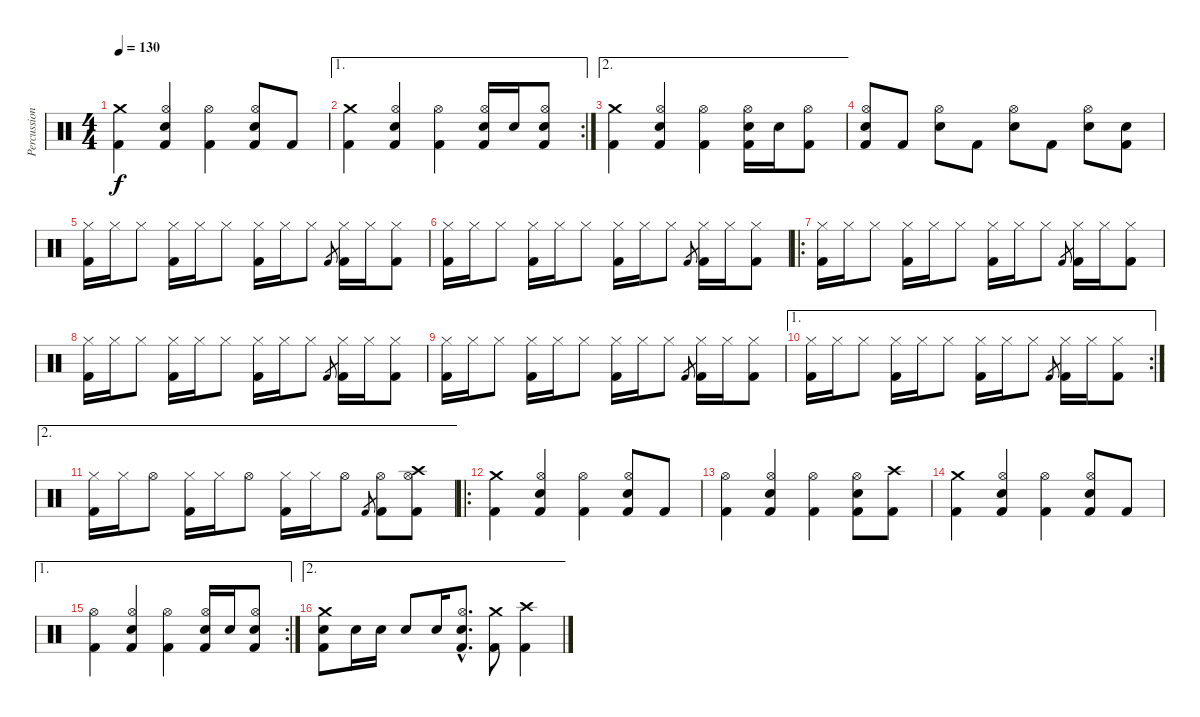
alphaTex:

\track ("Percussion" "Percussion") {instrument percussion}
\staff {score}
\articulation defaults
\ts (4 4)
\tempo 130
\clef neutral
\ks c
("Crash medium (hit)" "Kick (hit) 2").4{dy f} ("Hi-Hat (open)" "Electric Snare (hit)" "Kick (hit) 2").4 ("Hi-Hat (open)" "Kick (hit) 2").4 ("Hi-Hat (open)" "Electric Snare (hit)" "Kick (hit) 2").8 "Kick (hit) 2".8 |
\ae 1
\rc 2
("Crash medium (hit)" "Kick (hit) 2").4 ("Hi-Hat (open)" "Electric Snare (hit)" "Kick (hit) 2").4 ("Hi-Hat (open)" "Kick (hit) 2").4 ("Hi-Hat (open)" "Electric Snare (hit)" "Kick (hit) 2").16 "Electric Snare (hit)".16 ("Hi-Hat (open)" "Electric Snare (hit)" "Kick (hit) 2").8 |
\ae 2
("Crash medium (hit)" "Kick (hit) 2").4 ("Hi-Hat (open)" "Electric Snare (hit)" "Kick (hit) 2").4 ("Hi-Hat (open)" "Kick (hit) 2").4 ("Hi-Hat (open)" "Electric Snare (hit)" "Kick (hit) 2").16 "Electric Snare (hit)".16 ("Hi-Hat (open)" "Kick (hit) 2").8 |
("Hi-Hat (open)" "Electric Snare (hit)" "Kick (hit) 2").8 "Kick (hit) 2".8 ("Hi-Hat (open)" "Electric Snare (hit)").8 "Kick (hit) 2".8 ("Hi-Hat (open)" "Electric Snare (hit)").8 "Kick (hit) 2".8 ("Hi-Hat (open)" "Electric Snare (hit)").8 ("Electric Snare (hit)" "Kick (hit) 2").8 |
("Hi-Hat (closed)" "Kick (hit) 2").16 "Hi-Hat (closed)".16 "Hi-Hat (closed)".8 ("Hi-Hat (closed)" "Kick (hit) 2").16 "Hi-Hat (closed)".16 "Hi-Hat (closed)".8 ("Hi-Hat (closed)" "Kick (hit) 2").16 "Hi-Hat (closed)".16 "Hi-Hat (closed)".8 "Kick (hit) 2".8{gr} ("Hi-Hat (closed)" "Kick (hit) 2").16 "Hi-Hat (closed)".16 ("Hi-Hat (closed)" "Kick (hit) 2").8 |
("Hi-Hat (closed)" "Kick (hit) 2").16 "Hi-Hat (closed)".16 "Hi-Hat (closed)".8 ("Hi-Hat (closed)" "Kick (hit) 2").16 "Hi-Hat (closed)".16 "Hi-Hat (closed)".8 ("Hi-Hat (closed)" "Kick (hit) 2").16 "Hi-Hat (closed)".16 "Hi-Hat (closed)".8 "Kick (hit) 2".8{gr} ("Hi-Hat (closed)" "Kick (hit) 2").16 "Hi-Hat (closed)".16 ("Hi-Hat (closed)" "Kick (hit) 2").8 |
\ro
("Hi-Hat (closed)" "Kick (hit) 2").16 "Hi-Hat (closed)".16 "Hi-Hat (closed)".8 ("Hi-Hat (closed)" "Kick (hit) 2").16 "Hi-Hat (closed)".16 "Hi-Hat (closed)".8 ("Hi-Hat (closed)" "Kick (hit) 2").16 "Hi-Hat (closed)".16 "Hi-Hat (closed)".8 "Kick (hit) 2".8{gr} ("Hi-Hat (closed)" "Kick (hit) 2").16 "Hi-Hat (closed)".16 ("Hi-Hat (closed)" "Kick (hit) 2").8 |
("Hi-Hat (closed)" "Kick (hit) 2").16 "Hi-Hat (closed)".16 "Hi-Hat (closed)".8 ("Hi-Hat (closed)" "Kick (hit) 2").16 "Hi-Hat (closed)".16 "Hi-Hat (closed)".8 ("Hi-Hat (closed)" "Kick (hit) 2").16 "Hi-Hat (closed)".16 "Hi-Hat (closed)".8 "Kick (hit) 2".8{gr} ("Hi-Hat (closed)" "Kick (hit) 2").16 "Hi-Hat (closed)".16 ("Hi-Hat (closed)" "Kick (hit) 2").8 |
("Hi-Hat (closed)" "Kick (hit) 2").16 "Hi-Hat (closed)".16 "Hi-Hat (closed)".8 ("Hi-Hat (closed)" "Kick (hit) 2").16 "Hi-Hat (closed)".16 "Hi-Hat (closed)".8 ("Hi-Hat (closed)" "Kick (hit) 2").16 "Hi-Hat (closed)".16 "Hi-Hat (closed)".8 "Kick (hit) 2".8{gr} ("Hi-Hat (closed)" "Kick (hit) 2").16 "Hi-Hat (closed)".16 ("Hi-Hat (closed)" "Kick (hit) 2").8 |
\ae 1
\rc 2
("Hi-Hat (closed)" "Kick (hit) 2").16 "Hi-Hat (closed)".16 "Hi-Hat (closed)".8 ("Hi-Hat (closed)" "Kick (hit) 2").16 "Hi-Hat (closed)".16 "Hi-Hat (closed)".8 ("Hi-Hat (closed)" "Kick (hit) 2").16 "Hi-Hat (closed)".16 "Hi-Hat (closed)".8 "Kick (hit) 2".8{gr} ("Hi-Hat (closed)" "Kick (hit) 2").16 "Hi-Hat (closed)".16 ("Hi-Hat (closed)" "Kick (hit) 2").8 |
\ae 2
("Hi-Hat (closed)" "Kick (hit) 2").16 "Hi-Hat (closed)".16 "Hi-Hat (open)".8 ("Hi-Hat (closed)" "Kick (hit) 2").16 "Hi-Hat (closed)".16 "Hi-Hat (open)".8 ("Hi-Hat (closed)" "Kick (hit) 2").16 "Hi-Hat (closed)".16 "Hi-Hat (open)".8 "Kick (hit) 2".8{gr} ("Hi-Hat (open)" "Kick (hit) 2").8 ("Crash high (hit)" "Hi-Hat (open)" "Kick (hit) 2").8 |
\ro
("Crash medium (hit)" "Kick (hit) 2").4 ("Hi-Hat (open)" "Electric Snare (hit)" "Kick (hit) 2").4 ("Hi-Hat (open)" "Kick (hit) 2").4 ("Hi-Hat (open)" "Electric Snare (hit)" "Kick (hit) 2").8 "Kick (hit) 2".8 |
("Hi-Hat (open)" "Kick (hit) 2").4 ("Hi-Hat (open)" "Electric Snare (hit)" "Kick (hit) 2").4 ("Hi-Hat (open)" "Kick (hit) 2").4 ("Hi-Hat (open)" "Electric Snare (hit)" "Kick (hit) 2").8 ("Crash high (hit)" "Kick (hit) 2").8 |
("Crash medium (hit)" "Kick (hit) 2").4 ("Hi-Hat (open)" "Electric Snare (hit)" "Kick (hit) 2").4 ("Hi-Hat (open)" "Kick (hit) 2").4 ("Hi-Hat (open)" "Electric Snare (hit)" "Kick (hit) 2").8 "Kick (hit) 2".8 |
\ae 1
\rc 2
("Hi-Hat (open)" "Kick (hit) 2").4 ("Hi-Hat (open)" "Electric Snare (hit)" "Kick (hit) 2").4 ("Hi-Hat (open)" "Kick (hit) 2").4 ("Hi-Hat (open)" "Electric Snare (hit)" "Kick (hit) 2").16 "Electric Snare (hit)".16 ("Hi-Hat (open)" "Electric Snare (hit)" "Kick (hit) 2").8 |
\ae 2
("Crash medium (hit)" "Electric Snare (hit)" "Kick (hit) 2").8 "Electric Snare (hit)".16 "Electric Snare (hit)".16 "Electric Snare (hit)".8 "Electric Snare (hit)".16 ("Hi-Hat (open)"{hac} "Electric Snare (hit)"{hac} "Kick (hit) 2"{hac}).8{d} ("Crash medium (hit)" "Kick (hit) 2").8 ("Crash high (hit)" "Kick (hit) 2").4
